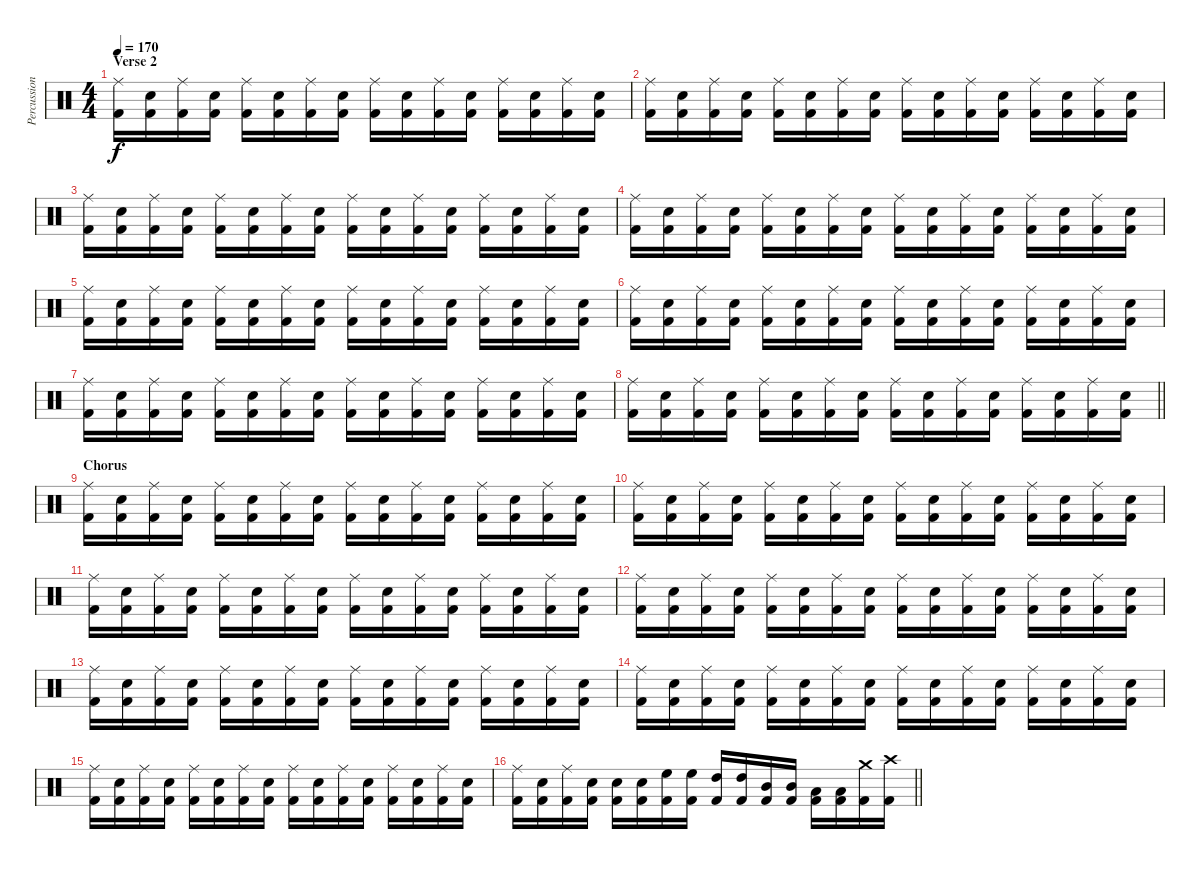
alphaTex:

\track ("Percussion" "Percussion") {instrument percussion}
\staff {score}
\articulation defaults
\ts (4 4)
\section ("" "Verse 2")
\tempo 170
\clef neutral
\ks c
("Ride (middle)" "Kick (hit) 2").16{dy f} ("Electric Snare (hit)" "Kick (hit) 2").16 ("Ride (middle)" "Kick (hit) 2").16 ("Electric Snare (hit)" "Kick (hit) 2").16 ("Ride (middle)" "Kick (hit) 2").16 ("Electric Snare (hit)" "Kick (hit) 2").16 ("Ride (middle)" "Kick (hit) 2").16 ("Electric Snare (hit)" "Kick (hit) 2").16 ("Ride (middle)" "Kick (hit) 2").16 ("Electric Snare (hit)" "Kick (hit) 2").16 ("Ride (middle)" "Kick (hit) 2").16 ("Electric Snare (hit)" "Kick (hit) 2").16 ("Ride (middle)" "Kick (hit) 2").16 ("Electric Snare (hit)" "Kick (hit) 2").16 ("Ride (middle)" "Kick (hit) 2").16 ("Electric Snare (hit)" "Kick (hit) 2").16 |
("Ride (middle)" "Kick (hit) 2").16 ("Electric Snare (hit)" "Kick (hit) 2").16 ("Ride (middle)" "Kick (hit) 2").16 ("Electric Snare (hit)" "Kick (hit) 2").16 ("Ride (middle)" "Kick (hit) 2").16 ("Electric Snare (hit)" "Kick (hit) 2").16 ("Ride (middle)" "Kick (hit) 2").16 ("Electric Snare (hit)" "Kick (hit) 2").16 ("Ride (middle)" "Kick (hit) 2").16 ("Electric Snare (hit)" "Kick (hit) 2").16 ("Ride (middle)" "Kick (hit) 2").16 ("Electric Snare (hit)" "Kick (hit) 2").16 ("Ride (middle)" "Kick (hit) 2").16 ("Electric Snare (hit)" "Kick (hit) 2").16 ("Ride (middle)" "Kick (hit) 2").16 ("Electric Snare (hit)" "Kick (hit) 2").16 |
("Ride (middle)" "Kick (hit) 2").16 ("Electric Snare (hit)" "Kick (hit) 2").16 ("Ride (middle)" "Kick (hit) 2").16 ("Electric Snare (hit)" "Kick (hit) 2").16 ("Ride (middle)" "Kick (hit) 2").16 ("Electric Snare (hit)" "Kick (hit) 2").16 ("Ride (middle)" "Kick (hit) 2").16 ("Electric Snare (hit)" "Kick (hit) 2").16 ("Ride (middle)" "Kick (hit) 2").16 ("Electric Snare (hit)" "Kick (hit) 2").16 ("Ride (middle)" "Kick (hit) 2").16 ("Electric Snare (hit)" "Kick (hit) 2").16 ("Ride (middle)" "Kick (hit) 2").16 ("Electric Snare (hit)" "Kick (hit) 2").16 ("Ride (middle)" "Kick (hit) 2").16 ("Electric Snare (hit)" "Kick (hit) 2").16 |
("Ride (middle)" "Kick (hit) 2").16 ("Electric Snare (hit)" "Kick (hit) 2").16 ("Ride (middle)" "Kick (hit) 2").16 ("Electric Snare (hit)" "Kick (hit) 2").16 ("Ride (middle)" "Kick (hit) 2").16 ("Electric Snare (hit)" "Kick (hit) 2").16 ("Ride (middle)" "Kick (hit) 2").16 ("Electric Snare (hit)" "Kick (hit) 2").16 ("Ride (middle)" "Kick (hit) 2").16 ("Electric Snare (hit)" "Kick (hit) 2").16 ("Ride (middle)" "Kick (hit) 2").16 ("Electric Snare (hit)" "Kick (hit) 2").16 ("Ride (middle)" "Kick (hit) 2").16 ("Electric Snare (hit)" "Kick (hit) 2").16 ("Ride (middle)" "Kick (hit) 2").16 ("Electric Snare (hit)" "Kick (hit) 2").16 |
("Ride (middle)" "Kick (hit) 2").16 ("Electric Snare (hit)" "Kick (hit) 2").16 ("Ride (middle)" "Kick (hit) 2").16 ("Electric Snare (hit)" "Kick (hit) 2").16 ("Ride (middle)" "Kick (hit) 2").16 ("Electric Snare (hit)" "Kick (hit) 2").16 ("Ride (middle)" "Kick (hit) 2").16 ("Electric Snare (hit)" "Kick (hit) 2").16 ("Ride (middle)" "Kick (hit) 2").16 ("Electric Snare (hit)" "Kick (hit) 2").16 ("Ride (middle)" "Kick (hit) 2").16 ("Electric Snare (hit)" "Kick (hit) 2").16 ("Ride (middle)" "Kick (hit) 2").16 ("Electric Snare (hit)" "Kick (hit) 2").16 ("Ride (middle)" "Kick (hit) 2").16 ("Electric Snare (hit)" "Kick (hit) 2").16 |
("Ride (middle)" "Kick (hit) 2").16 ("Electric Snare (hit)" "Kick (hit) 2").16 ("Ride (middle)" "Kick (hit) 2").16 ("Electric Snare (hit)" "Kick (hit) 2").16 ("Ride (middle)" "Kick (hit) 2").16 ("Electric Snare (hit)" "Kick (hit) 2").16 ("Ride (middle)" "Kick (hit) 2").16 ("Electric Snare (hit)" "Kick (hit) 2").16 ("Ride (middle)" "Kick (hit) 2").16 ("Electric Snare (hit)" "Kick (hit) 2").16 ("Ride (middle)" "Kick (hit) 2").16 ("Electric Snare (hit)" "Kick (hit) 2").16 ("Ride (middle)" "Kick (hit) 2").16 ("Electric Snare (hit)" "Kick (hit) 2").16 ("Ride (middle)" "Kick (hit) 2").16 ("Electric Snare (hit)" "Kick (hit) 2").16 |
("Ride (middle)" "Kick (hit) 2").16 ("Electric Snare (hit)" "Kick (hit) 2").16 ("Ride (middle)" "Kick (hit) 2").16 ("Electric Snare (hit)" "Kick (hit) 2").16 ("Ride (middle)" "Kick (hit) 2").16 ("Electric Snare (hit)" "Kick (hit) 2").16 ("Ride (middle)" "Kick (hit) 2").16 ("Electric Snare (hit)" "Kick (hit) 2").16 ("Ride (middle)" "Kick (hit) 2").16 ("Electric Snare (hit)" "Kick (hit) 2").16 ("Ride (middle)" "Kick (hit) 2").16 ("Electric Snare (hit)" "Kick (hit) 2").16 ("Ride (middle)" "Kick (hit) 2").16 ("Electric Snare (hit)" "Kick (hit) 2").16 ("Ride (middle)" "Kick (hit) 2").16 ("Electric Snare (hit)" "Kick (hit) 2").16 |
\barLineRight lightlight
("Ride (middle)" "Kick (hit) 2").16 ("Electric Snare (hit)" "Kick (hit) 2").16 ("Ride (middle)" "Kick (hit) 2").16 ("Electric Snare (hit)" "Kick (hit) 2").16 ("Ride (middle)" "Kick (hit) 2").16 ("Electric Snare (hit)" "Kick (hit) 2").16 ("Ride (middle)" "Kick (hit) 2").16 ("Electric Snare (hit)" "Kick (hit) 2").16 ("Ride (middle)" "Kick (hit) 2").16 ("Electric Snare (hit)" "Kick (hit) 2").16 ("Ride (middle)" "Kick (hit) 2").16 ("Electric Snare (hit)" "Kick (hit) 2").16 ("Ride (middle)" "Kick (hit) 2").16 ("Electric Snare (hit)" "Kick (hit) 2").16 ("Ride (middle)" "Kick (hit) 2").16 ("Electric Snare (hit)" "Kick (hit) 2").16 |
\section ("" "Chorus")
("Ride (middle)" "Kick (hit) 2").16 ("Electric Snare (hit)" "Kick (hit) 2").16 ("Ride (middle)" "Kick (hit) 2").16 ("Electric Snare (hit)" "Kick (hit) 2").16 ("Ride (middle)" "Kick (hit) 2").16 ("Electric Snare (hit)" "Kick (hit) 2").16 ("Ride (middle)" "Kick (hit) 2").16 ("Electric Snare (hit)" "Kick (hit) 2").16 ("Ride (middle)" "Kick (hit) 2").16 ("Electric Snare (hit)" "Kick (hit) 2").16 ("Ride (middle)" "Kick (hit) 2").16 ("Electric Snare (hit)" "Kick (hit) 2").16 ("Ride (middle)" "Kick (hit) 2").16 ("Electric Snare (hit)" "Kick (hit) 2").16 ("Ride (middle)" "Kick (hit) 2").16 ("Electric Snare (hit)" "Kick (hit) 2").16 |
("Ride (middle)" "Kick (hit) 2").16 ("Electric Snare (hit)" "Kick (hit) 2").16 ("Ride (middle)" "Kick (hit) 2").16 ("Electric Snare (hit)" "Kick (hit) 2").16 ("Ride (middle)" "Kick (hit) 2").16 ("Electric Snare (hit)" "Kick (hit) 2").16 ("Ride (middle)" "Kick (hit) 2").16 ("Electric Snare (hit)" "Kick (hit) 2").16 ("Ride (middle)" "Kick (hit) 2").16 ("Electric Snare (hit)" "Kick (hit) 2").16 ("Ride (middle)" "Kick (hit) 2").16 ("Electric Snare (hit)" "Kick (hit) 2").16 ("Ride (middle)" "Kick (hit) 2").16 ("Electric Snare (hit)" "Kick (hit) 2").16 ("Ride (middle)" "Kick (hit) 2").16 ("Electric Snare (hit)" "Kick (hit) 2").16 |
("Ride (middle)" "Kick (hit) 2").16 ("Electric Snare (hit)" "Kick (hit) 2").16 ("Ride (middle)" "Kick (hit) 2").16 ("Electric Snare (hit)" "Kick (hit) 2").16 ("Ride (middle)" "Kick (hit) 2").16 ("Electric Snare (hit)" "Kick (hit) 2").16 ("Ride (middle)" "Kick (hit) 2").16 ("Electric Snare (hit)" "Kick (hit) 2").16 ("Ride (middle)" "Kick (hit) 2").16 ("Electric Snare (hit)" "Kick (hit) 2").16 ("Ride (middle)" "Kick (hit) 2").16 ("Electric Snare (hit)" "Kick (hit) 2").16 ("Ride (middle)" "Kick (hit) 2").16 ("Electric Snare (hit)" "Kick (hit) 2").16 ("Ride (middle)" "Kick (hit) 2").16 ("Electric Snare (hit)" "Kick (hit) 2").16 |
("Ride (middle)" "Kick (hit) 2").16 ("Electric Snare (hit)" "Kick (hit) 2").16 ("Ride (middle)" "Kick (hit) 2").16 ("Electric Snare (hit)" "Kick (hit) 2").16 ("Ride (middle)" "Kick (hit) 2").16 ("Electric Snare (hit)" "Kick (hit) 2").16 ("Ride (middle)" "Kick (hit) 2").16 ("Electric Snare (hit)" "Kick (hit) 2").16 ("Ride (middle)" "Kick (hit) 2").16 ("Electric Snare (hit)" "Kick (hit) 2").16 ("Ride (middle)" "Kick (hit) 2").16 ("Electric Snare (hit)" "Kick (hit) 2").16 ("Ride (middle)" "Kick (hit) 2").16 ("Electric Snare (hit)" "Kick (hit) 2").16 ("Ride (middle)" "Kick (hit) 2").16 ("Electric Snare (hit)" "Kick (hit) 2").16 |
("Ride (middle)" "Kick (hit) 2").16 ("Electric Snare (hit)" "Kick (hit) 2").16 ("Ride (middle)" "Kick (hit) 2").16 ("Electric Snare (hit)" "Kick (hit) 2").16 ("Ride (middle)" "Kick (hit) 2").16 ("Electric Snare (hit)" "Kick (hit) 2").16 ("Ride (middle)" "Kick (hit) 2").16 ("Electric Snare (hit)" "Kick (hit) 2").16 ("Ride (middle)" "Kick (hit) 2").16 ("Electric Snare (hit)" "Kick (hit) 2").16 ("Ride (middle)" "Kick (hit) 2").16 ("Electric Snare (hit)" "Kick (hit) 2").16 ("Ride (middle)" "Kick (hit) 2").16 ("Electric Snare (hit)" "Kick (hit) 2").16 ("Ride (middle)" "Kick (hit) 2").16 ("Electric Snare (hit)" "Kick (hit) 2").16 |
("Ride (middle)" "Kick (hit) 2").16 ("Electric Snare (hit)" "Kick (hit) 2").16 ("Ride (middle)" "Kick (hit) 2").16 ("Electric Snare (hit)" "Kick (hit) 2").16 ("Ride (middle)" "Kick (hit) 2").16 ("Electric Snare (hit)" "Kick (hit) 2").16 ("Ride (middle)" "Kick (hit) 2").16 ("Electric Snare (hit)" "Kick (hit) 2").16 ("Ride (middle)" "Kick (hit) 2").16 ("Electric Snare (hit)" "Kick (hit) 2").16 ("Ride (middle)" "Kick (hit) 2").16 ("Electric Snare (hit)" "Kick (hit) 2").16 ("Ride (middle)" "Kick (hit) 2").16 ("Electric Snare (hit)" "Kick (hit) 2").16 ("Ride (middle)" "Kick (hit) 2").16 ("Electric Snare (hit)" "Kick (hit) 2").16 |
("Ride (middle)" "Kick (hit) 2").16 ("Electric Snare (hit)" "Kick (hit) 2").16 ("Ride (middle)" "Kick (hit) 2").16 ("Electric Snare (hit)" "Kick (hit) 2").16 ("Ride (middle)" "Kick (hit) 2").16 ("Electric Snare (hit)" "Kick (hit) 2").16 ("Ride (middle)" "Kick (hit) 2").16 ("Electric Snare (hit)" "Kick (hit) 2").16 ("Ride (middle)" "Kick (hit) 2").16 ("Electric Snare (hit)" "Kick (hit) 2").16 ("Ride (middle)" "Kick (hit) 2").16 ("Electric Snare (hit)" "Kick (hit) 2").16 ("Ride (middle)" "Kick (hit) 2").16 ("Electric Snare (hit)" "Kick (hit) 2").16 ("Ride (middle)" "Kick (hit) 2").16 ("Electric Snare (hit)" "Kick (hit) 2").16 |
\barLineRight lightlight
("Ride (middle)" "Kick (hit) 2").16 ("Electric Snare (hit)" "Kick (hit) 2").16 ("Ride (middle)" "Kick (hit) 2").16 ("Electric Snare (hit)" "Kick (hit) 2").16 ("Electric Snare (hit)" "Kick (hit) 2").16 ("Electric Snare (hit)" "Kick (hit) 2").16 ("High Floor Tom (hit)" "Kick (hit) 2").16 ("High Floor Tom (hit)" "Kick (hit) 2").16 ("High Tom (hit)" "Kick (hit) 2").16 ("High Tom (hit)" "Kick (hit) 2").16 ("Mid Tom (hit)" "Kick (hit) 2").16 ("Mid Tom (hit)" "Kick (hit) 2").16 ("Low Tom (hit)" "Kick (hit) 2").16 ("Low Tom (hit)" "Kick (hit) 2").16 ("Crash medium (hit)" "Kick (hit) 2").16 ("Crash high (hit)" "Kick (hit) 2").16
